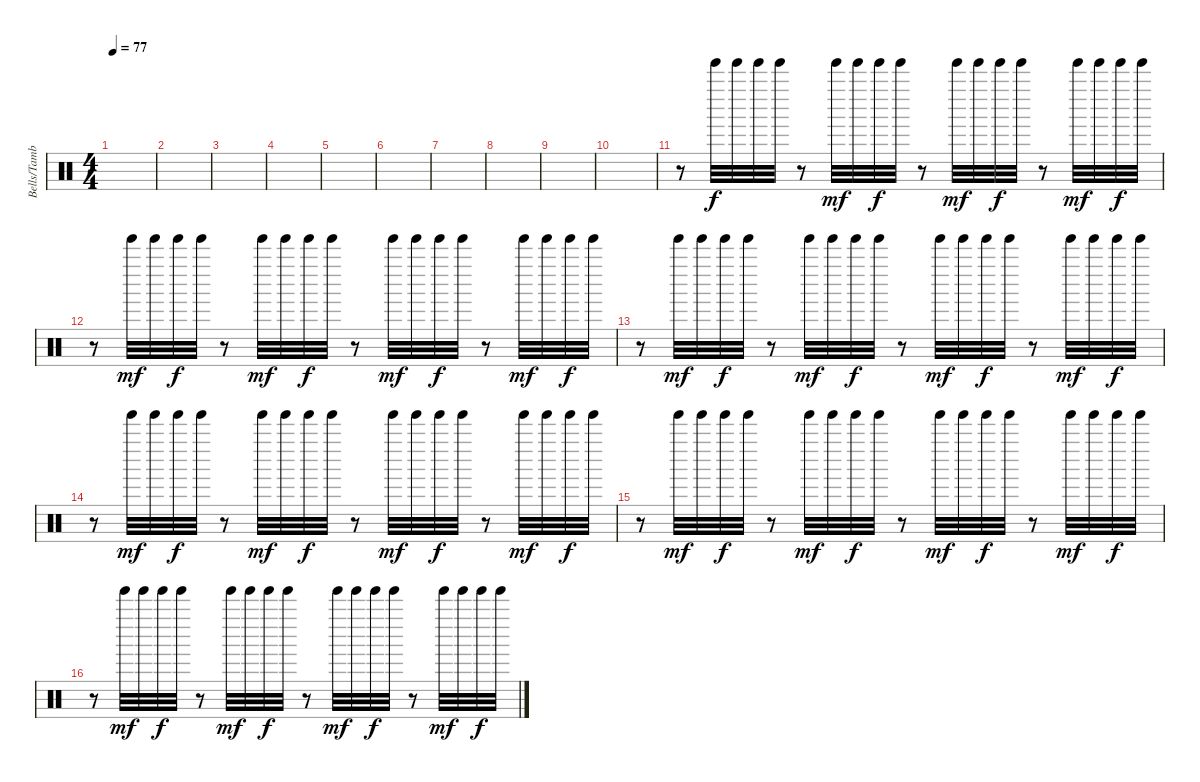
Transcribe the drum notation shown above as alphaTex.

\track ("Bells/Tambo" "Bells/Tamb") {instrument percussion}
\staff {score}
\articulation defaults
\ts (4 4)
\tempo 77
\clef neutral
\ks c
|
|
|
|
|
|
|
|
|
|
r.8 "Tinkle Bell (hit)".32 "Tinkle Bell (hit)".32 "Tinkle Bell (hit)".32{dy f} "Tinkle Bell (hit)".32 r.8 "Tinkle Bell (hit)".32{dy mf} "Tinkle Bell (hit)".32 "Tinkle Bell (hit)".32{dy f} "Tinkle Bell (hit)".32 r.8 "Tinkle Bell (hit)".32{dy mf} "Tinkle Bell (hit)".32 "Tinkle Bell (hit)".32{dy f} "Tinkle Bell (hit)".32 r.8 "Tinkle Bell (hit)".32{dy mf} "Tinkle Bell (hit)".32 "Tinkle Bell (hit)".32{dy f} "Tinkle Bell (hit)".32 |
r.8 "Tinkle Bell (hit)".32{dy mf} "Tinkle Bell (hit)".32 "Tinkle Bell (hit)".32{dy f} "Tinkle Bell (hit)".32 r.8 "Tinkle Bell (hit)".32{dy mf} "Tinkle Bell (hit)".32 "Tinkle Bell (hit)".32{dy f} "Tinkle Bell (hit)".32 r.8 "Tinkle Bell (hit)".32{dy mf} "Tinkle Bell (hit)".32 "Tinkle Bell (hit)".32{dy f} "Tinkle Bell (hit)".32 r.8 "Tinkle Bell (hit)".32{dy mf} "Tinkle Bell (hit)".32 "Tinkle Bell (hit)".32{dy f} "Tinkle Bell (hit)".32 |
r.8 "Tinkle Bell (hit)".32{dy mf} "Tinkle Bell (hit)".32 "Tinkle Bell (hit)".32{dy f} "Tinkle Bell (hit)".32 r.8 "Tinkle Bell (hit)".32{dy mf} "Tinkle Bell (hit)".32 "Tinkle Bell (hit)".32{dy f} "Tinkle Bell (hit)".32 r.8 "Tinkle Bell (hit)".32{dy mf} "Tinkle Bell (hit)".32 "Tinkle Bell (hit)".32{dy f} "Tinkle Bell (hit)".32 r.8 "Tinkle Bell (hit)".32{dy mf} "Tinkle Bell (hit)".32 "Tinkle Bell (hit)".32{dy f} "Tinkle Bell (hit)".32 |
r.8 "Tinkle Bell (hit)".32{dy mf} "Tinkle Bell (hit)".32 "Tinkle Bell (hit)".32{dy f} "Tinkle Bell (hit)".32 r.8 "Tinkle Bell (hit)".32{dy mf} "Tinkle Bell (hit)".32 "Tinkle Bell (hit)".32{dy f} "Tinkle Bell (hit)".32 r.8 "Tinkle Bell (hit)".32{dy mf} "Tinkle Bell (hit)".32 "Tinkle Bell (hit)".32{dy f} "Tinkle Bell (hit)".32 r.8 "Tinkle Bell (hit)".32{dy mf} "Tinkle Bell (hit)".32 "Tinkle Bell (hit)".32{dy f} "Tinkle Bell (hit)".32 |
r.8 "Tinkle Bell (hit)".32{dy mf} "Tinkle Bell (hit)".32 "Tinkle Bell (hit)".32{dy f} "Tinkle Bell (hit)".32 r.8 "Tinkle Bell (hit)".32{dy mf} "Tinkle Bell (hit)".32 "Tinkle Bell (hit)".32{dy f} "Tinkle Bell (hit)".32 r.8 "Tinkle Bell (hit)".32{dy mf} "Tinkle Bell (hit)".32 "Tinkle Bell (hit)".32{dy f} "Tinkle Bell (hit)".32 r.8 "Tinkle Bell (hit)".32{dy mf} "Tinkle Bell (hit)".32 "Tinkle Bell (hit)".32{dy f} "Tinkle Bell (hit)".32 |
r.8 "Tinkle Bell (hit)".32{dy mf} "Tinkle Bell (hit)".32 "Tinkle Bell (hit)".32{dy f} "Tinkle Bell (hit)".32 r.8 "Tinkle Bell (hit)".32{dy mf} "Tinkle Bell (hit)".32 "Tinkle Bell (hit)".32{dy f} "Tinkle Bell (hit)".32 r.8 "Tinkle Bell (hit)".32{dy mf} "Tinkle Bell (hit)".32 "Tinkle Bell (hit)".32{dy f} "Tinkle Bell (hit)".32 r.8 "Tinkle Bell (hit)".32{dy mf} "Tinkle Bell (hit)".32 "Tinkle Bell (hit)".32{dy f} "Tinkle Bell (hit)".32
